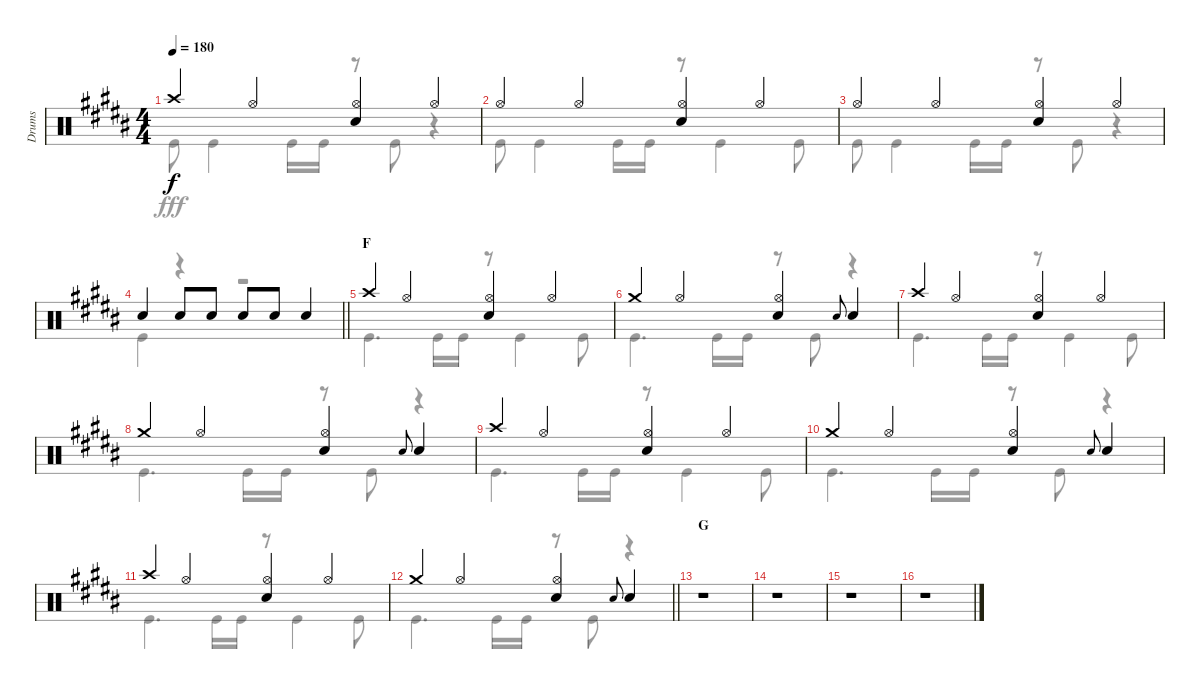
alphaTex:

\track ("Drums" "Drums") {instrument percussion}
\staff {score}
\articulation defaults
\voice
\ts (4 4)
\tempo 180
\clef neutral
\ks b "Crash high (hit)".4{dy f} "Hi-Hat (open)".4
("Hi-Hat (open)" "Snare (hit) 2").4 "Hi-Hat (open)".4 |
"Hi-Hat (open)".4 "Hi-Hat (open)".4 ("Hi-Hat (open)" "Snare (hit) 2").4 "Hi-Hat (open)".4 |
"Hi-Hat (open)".4 "Hi-Hat (open)".4 ("Hi-Hat (open)" "Snare (hit) 2").4 "Hi-Hat (open)".4 |
\barLineRight lightlight "Snare (hit) 2".4 "Snare (hit) 2".8 "Snare (hit) 2".8 "Snare (hit) 2".8 "Snare (hit) 2".8 "Snare (hit) 2".4
|
\section ("" "F")
"Crash high (hit)".4 "Hi-Hat (open)".4 ("Hi-Hat (open)" "Snare (hit) 2").4 "Hi-Hat (open)".4 |
"Crash medium (hit)".4 "Hi-Hat (open)".4 ("Hi-Hat (open)" "Snare (hit) 2").4 "Snare (hit) 2".8{gr onbeat} "Snare (hit) 2".4 |
"Crash high (hit)".4 "Hi-Hat (open)".4 ("Hi-Hat (open)" "Snare (hit) 2").4 "Hi-Hat (open)".4 |
"Crash medium (hit)".4 "Hi-Hat (open)".4 ("Hi-Hat (open)" "Snare (hit) 2").4 "Snare (hit) 2".8{gr onbeat} "Snare (hit) 2".4 |
"Crash high (hit)".4 "Hi-Hat (open)".4 ("Hi-Hat (open)" "Snare (hit) 2").4 "Hi-Hat (open)".4 |
"Crash medium (hit)".4 "Hi-Hat (open)".4 ("Hi-Hat (open)" "Snare (hit) 2").4 "Snare (hit) 2".8{gr onbeat} "Snare (hit) 2".4 |
"Crash high (hit)".4 "Hi-Hat (open)".4 ("Hi-Hat (open)" "Snare (hit) 2").4 "Hi-Hat (open)".4 |
\barLineRight lightlight "Crash medium (hit)".4 "Hi-Hat (open)".4
("Hi-Hat (open)" "Snare (hit) 2").4 "Snare (hit) 2".8{gr onbeat} "Snare (hit) 2".4 |
\section ("" "G")
r.1 |
r.1 |
r.1 |
r.1
\voice
\clef neutral
\ottava regular
\simile none
\ks b "Kick (hit)".8{dy fff} "Kick (hit)".4 "Kick (hit)".16 "Kick (hit)".16
r.8 "Kick (hit)".8 r.4 |
"Kick (hit)".8 "Kick (hit)".4 "Kick (hit)".16 "Kick (hit)".16 r.8 "Kick (hit)".4 "Kick (hit)".8 |
"Kick (hit)".8 "Kick (hit)".4 "Kick (hit)".16 "Kick (hit)".16 r.8 "Kick (hit)".8 r.4 |
\barLineRight lightlight "Kick (hit)".4
r.4 r.2 |
"Kick (hit)".4{d} "Kick (hit)".16 "Kick (hit)".16 r.8 "Kick (hit)".4 "Kick (hit)".8 |
"Kick (hit)".4{d} "Kick (hit)".16 "Kick (hit)".16 r.8 "Kick (hit)".8 r.4 |
"Kick (hit)".4{d} "Kick (hit)".16 "Kick (hit)".16 r.8 "Kick (hit)".4 "Kick (hit)".8 |
"Kick (hit)".4{d} "Kick (hit)".16 "Kick (hit)".16 r.8 "Kick (hit)".8 r.4 |
"Kick (hit)".4{d} "Kick (hit)".16 "Kick (hit)".16 r.8 "Kick (hit)".4 "Kick (hit)".8 |
"Kick (hit)".4{d} "Kick (hit)".16 "Kick (hit)".16 r.8 "Kick (hit)".8 r.4 |
"Kick (hit)".4{d} "Kick (hit)".16 "Kick (hit)".16 r.8 "Kick (hit)".4 "Kick (hit)".8 |
\barLineRight lightlight "Kick (hit)".4{d} "Kick (hit)".16 "Kick (hit)".16
r.8 "Kick (hit)".8 r.4 |
r.1 |
r.1 |
r.1 |
r.1
